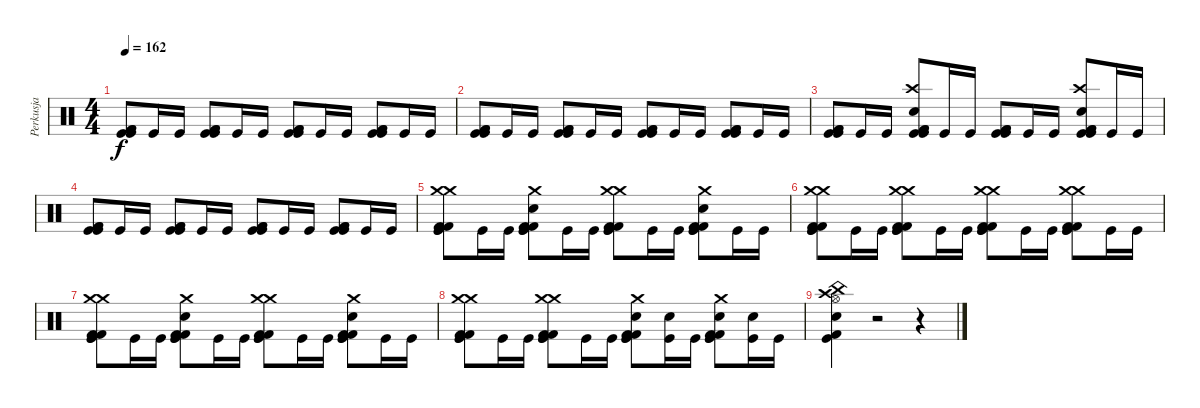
\track ("Perkusja" "Perkusja") {instrument percussion}
\staff {score}
\articulation defaults
\ts (4 4)
\tempo 162
\clef neutral
\ks c
("Kick (hit) 2" "Kick (hit) 2" "Kick (hit)" "Kick (hit)").8{dy f} "Kick (hit)".16 "Kick (hit)".16 ("Kick (hit) 2" "Kick (hit) 2" "Kick (hit)" "Kick (hit)").8 "Kick (hit)".16 "Kick (hit)".16 ("Kick (hit) 2" "Kick (hit) 2" "Kick (hit)" "Kick (hit)").8 "Kick (hit)".16 "Kick (hit)".16 ("Kick (hit) 2" "Kick (hit) 2" "Kick (hit)" "Kick (hit)").8 "Kick (hit)".16 "Kick (hit)".16 |
("Kick (hit) 2" "Kick (hit) 2" "Kick (hit)" "Kick (hit)").8 "Kick (hit)".16 "Kick (hit)".16 ("Kick (hit) 2" "Kick (hit) 2" "Kick (hit)" "Kick (hit)").8 "Kick (hit)".16 "Kick (hit)".16 ("Kick (hit) 2" "Kick (hit) 2" "Kick (hit)" "Kick (hit)").8 "Kick (hit)".16 "Kick (hit)".16 ("Kick (hit) 2" "Kick (hit) 2" "Kick (hit)" "Kick (hit)").8 "Kick (hit)".16 "Kick (hit)".16 |
("Kick (hit) 2" "Kick (hit) 2" "Kick (hit)" "Kick (hit)").8 "Kick (hit)".16 "Kick (hit)".16 ("Crash high (hit)" "Snare (hit) 2" "Kick (hit) 2" "Kick (hit) 2" "Kick (hit)" "Kick (hit)").8 "Kick (hit)".16 "Kick (hit)".16 ("Kick (hit) 2" "Kick (hit) 2" "Kick (hit)" "Kick (hit)").8 "Kick (hit)".16 "Kick (hit)".16 ("Crash high (hit)" "Snare (hit) 2" "Kick (hit) 2" "Kick (hit) 2" "Kick (hit)" "Kick (hit)").8 "Kick (hit)".16 "Kick (hit)".16 |
("Kick (hit) 2" "Kick (hit) 2" "Kick (hit)" "Kick (hit)").8 "Kick (hit)".16 "Kick (hit)".16 ("Kick (hit) 2" "Kick (hit) 2" "Kick (hit)" "Kick (hit)").8 "Kick (hit)".16 "Kick (hit)".16 ("Kick (hit) 2" "Kick (hit) 2" "Kick (hit)" "Kick (hit)").8 "Kick (hit)".16 "Kick (hit)".16 ("Kick (hit) 2" "Kick (hit) 2" "Kick (hit)" "Kick (hit)").8 "Kick (hit)".16 "Kick (hit)".16 |
("Crash medium (hit)" "Crash medium (hit)" "Kick (hit) 2" "Kick (hit) 2" "Kick (hit)" "Kick (hit)").8 "Kick (hit)".16 "Kick (hit)".16 ("Crash medium (hit)" "Snare (hit) 2" "Kick (hit) 2" "Kick (hit) 2" "Kick (hit)" "Kick (hit)").8 "Kick (hit)".16 "Kick (hit)".16 ("Crash medium (hit)" "Crash medium (hit)" "Kick (hit) 2" "Kick (hit) 2" "Kick (hit)" "Kick (hit)").8 "Kick (hit)".16 "Kick (hit)".16 ("Crash medium (hit)" "Snare (hit) 2" "Kick (hit) 2" "Kick (hit) 2" "Kick (hit)" "Kick (hit)").8 "Kick (hit)".16 "Kick (hit)".16 |
("Crash medium (hit)" "Crash medium (hit)" "Kick (hit) 2" "Kick (hit) 2" "Kick (hit)" "Kick (hit)").8 "Kick (hit)".16 "Kick (hit)".16 ("Crash medium (hit)" "Crash medium (hit)" "Kick (hit) 2" "Kick (hit) 2" "Kick (hit)" "Kick (hit)").8 "Kick (hit)".16 "Kick (hit)".16 ("Crash medium (hit)" "Crash medium (hit)" "Kick (hit) 2" "Kick (hit) 2" "Kick (hit)" "Kick (hit)").8 "Kick (hit)".16 "Kick (hit)".16 ("Crash medium (hit)" "Crash medium (hit)" "Kick (hit) 2" "Kick (hit) 2" "Kick (hit)" "Kick (hit)").8 "Kick (hit)".16 "Kick (hit)".16 |
("Crash medium (hit)" "Crash medium (hit)" "Kick (hit) 2" "Kick (hit) 2" "Kick (hit)" "Kick (hit)").8 "Kick (hit)".16 "Kick (hit)".16 ("Crash medium (hit)" "Snare (hit) 2" "Kick (hit) 2" "Kick (hit) 2" "Kick (hit)" "Kick (hit)").8 "Kick (hit)".16 "Kick (hit)".16 ("Crash medium (hit)" "Crash medium (hit)" "Kick (hit) 2" "Kick (hit) 2" "Kick (hit)" "Kick (hit)").8 "Kick (hit)".16 "Kick (hit)".16 ("Crash medium (hit)" "Snare (hit) 2" "Kick (hit) 2" "Kick (hit) 2" "Kick (hit)" "Kick (hit)").8 "Kick (hit)".16 "Kick (hit)".16 |
("Crash medium (hit)" "Crash medium (hit)" "Kick (hit) 2" "Kick (hit) 2" "Kick (hit)" "Kick (hit)").8 "Kick (hit)".16 "Kick (hit)".16 ("Crash medium (hit)" "Crash medium (hit)" "Kick (hit) 2" "Kick (hit) 2" "Kick (hit)" "Kick (hit)").8 "Kick (hit)".16 "Kick (hit)".16 ("Snare (hit) 2" "Crash medium (hit)" "Kick (hit) 2" "Kick (hit) 2" "Kick (hit)" "Kick (hit)").8 ("Snare (hit) 2" "Kick (hit)").16 "Kick (hit)".16 ("Snare (hit) 2" "Crash medium (hit)" "Kick (hit) 2" "Kick (hit) 2" "Kick (hit)" "Kick (hit)").8 ("Snare (hit) 2" "Kick (hit)").16 "Kick (hit)".16 |
("China (hit)" "Snare (hit) 2" "Crash high (hit)" "Kick (hit) 2" "Hi-Hat (open)" "Kick (hit)").4 r.2 r.4
